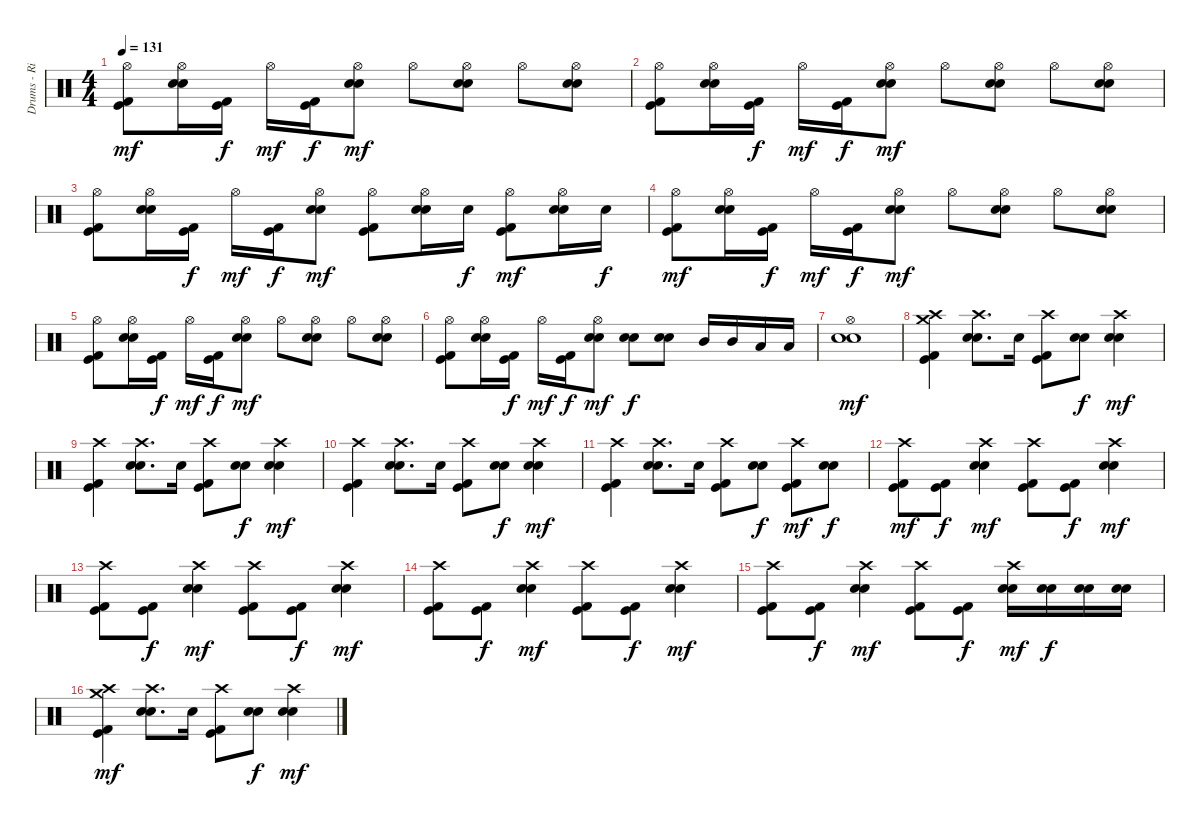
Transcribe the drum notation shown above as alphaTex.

\track ("Drums - Rian" "Drums - Ri") {instrument percussion}
\staff
\articulation defaults
\ts (4 4)
\tempo 131
\clef neutral
\ks c
("Kick (hit) 2" "Kick (hit)" "Hi-Hat (open)").8{dy mf} ("Electric Snare (hit)" "Electric Snare (hit)" "Hi-Hat (open)").16 ("Kick (hit) 2" "Kick (hit)").16{dy f} "Hi-Hat (open)".16{dy mf} ("Kick (hit) 2" "Kick (hit)").16{dy f} ("Electric Snare (hit)" "Electric Snare (hit)" "Hi-Hat (open)").8{dy mf} "Hi-Hat (open)".8 ("Electric Snare (hit)" "Electric Snare (hit)" "Hi-Hat (open)").8 "Hi-Hat (open)".8 ("Electric Snare (hit)" "Electric Snare (hit)" "Hi-Hat (open)").8 |
("Kick (hit) 2" "Kick (hit)" "Hi-Hat (open)").8 ("Electric Snare (hit)" "Electric Snare (hit)" "Hi-Hat (open)").16 ("Kick (hit) 2" "Kick (hit)").16{dy f} "Hi-Hat (open)".16{dy mf} ("Kick (hit) 2" "Kick (hit)").16{dy f} ("Electric Snare (hit)" "Electric Snare (hit)" "Hi-Hat (open)").8{dy mf} "Hi-Hat (open)".8 ("Electric Snare (hit)" "Electric Snare (hit)" "Hi-Hat (open)").8 "Hi-Hat (open)".8 ("Electric Snare (hit)" "Electric Snare (hit)" "Hi-Hat (open)").8 |
("Kick (hit) 2" "Kick (hit)" "Hi-Hat (open)").8 ("Electric Snare (hit)" "Electric Snare (hit)" "Hi-Hat (open)").16 ("Kick (hit) 2" "Kick (hit)").16{dy f} "Hi-Hat (open)".16{dy mf} ("Kick (hit) 2" "Kick (hit)").16{dy f} ("Electric Snare (hit)" "Electric Snare (hit)" "Hi-Hat (open)").8{dy mf} ("Kick (hit) 2" "Kick (hit)" "Hi-Hat (open)").8 ("Electric Snare (hit)" "Electric Snare (hit)" "Hi-Hat (open)").16 "Electric Snare (hit)".16{dy f} ("Kick (hit) 2" "Kick (hit)" "Hi-Hat (open)").8{dy mf} ("Electric Snare (hit)" "Electric Snare (hit)" "Hi-Hat (open)").16 "Electric Snare (hit)".16{dy f} |
("Kick (hit) 2" "Kick (hit)" "Hi-Hat (open)").8{dy mf} ("Electric Snare (hit)" "Electric Snare (hit)" "Hi-Hat (open)").16 ("Kick (hit) 2" "Kick (hit)").16{dy f} "Hi-Hat (open)".16{dy mf} ("Kick (hit) 2" "Kick (hit)").16{dy f} ("Electric Snare (hit)" "Electric Snare (hit)" "Hi-Hat (open)").8{dy mf} "Hi-Hat (open)".8 ("Electric Snare (hit)" "Electric Snare (hit)" "Hi-Hat (open)").8 "Hi-Hat (open)".8 ("Electric Snare (hit)" "Electric Snare (hit)" "Hi-Hat (open)").8 |
("Kick (hit) 2" "Kick (hit)" "Hi-Hat (open)").8 ("Electric Snare (hit)" "Electric Snare (hit)" "Hi-Hat (open)").16 ("Kick (hit) 2" "Kick (hit)").16{dy f} "Hi-Hat (open)".16{dy mf} ("Kick (hit) 2" "Kick (hit)").16{dy f} ("Electric Snare (hit)" "Electric Snare (hit)" "Hi-Hat (open)").8{dy mf} "Hi-Hat (open)".8 ("Electric Snare (hit)" "Electric Snare (hit)" "Hi-Hat (open)").8 "Hi-Hat (open)".8 ("Electric Snare (hit)" "Electric Snare (hit)" "Hi-Hat (open)").8 |
("Kick (hit) 2" "Kick (hit)" "Hi-Hat (open)").8 ("Electric Snare (hit)" "Electric Snare (hit)" "Hi-Hat (open)").16 ("Kick (hit) 2" "Kick (hit)").16{dy f} "Hi-Hat (open)".16{dy mf} ("Kick (hit) 2" "Kick (hit)").16{dy f} ("Electric Snare (hit)" "Electric Snare (hit)" "Hi-Hat (open)").8{dy mf} ("Electric Snare (hit)" "Electric Snare (hit)").8{dy f} ("Electric Snare (hit)" "Electric Snare (hit)").8 "Mid Tom (hit)".16 "Mid Tom (hit)".16 "Low Tom (hit)".16 "Low Tom (hit)".16 |
("Electric Snare (hit)" "Electric Snare (hit)" "Hi-Hat (open)").1{dy mf} |
("Kick (hit) 2" "Kick (hit)" "Crash high (hit)" "Crash medium (hit)").4 ("Electric Snare (hit)" "Electric Snare (hit)" "Crash high (hit)").8{d} "Electric Snare (hit)".16 ("Kick (hit) 2" "Kick (hit)" "Crash high (hit)").8 ("Electric Snare (hit)" "Electric Snare (hit)").8{dy f} ("Electric Snare (hit)" "Electric Snare (hit)" "Crash high (hit)").4{dy mf} |
("Kick (hit) 2" "Kick (hit)" "Crash high (hit)").4 ("Electric Snare (hit)" "Electric Snare (hit)" "Crash high (hit)").8{d} "Electric Snare (hit)".16 ("Kick (hit) 2" "Kick (hit)" "Crash high (hit)").8 ("Electric Snare (hit)" "Electric Snare (hit)").8{dy f} ("Electric Snare (hit)" "Electric Snare (hit)" "Crash high (hit)").4{dy mf} |
("Kick (hit) 2" "Kick (hit)" "Crash high (hit)").4 ("Electric Snare (hit)" "Electric Snare (hit)" "Crash high (hit)").8{d} "Electric Snare (hit)".16 ("Kick (hit) 2" "Kick (hit)" "Crash high (hit)").8 ("Electric Snare (hit)" "Electric Snare (hit)").8{dy f} ("Electric Snare (hit)" "Electric Snare (hit)" "Crash high (hit)").4{dy mf} |
("Kick (hit) 2" "Kick (hit)" "Crash high (hit)").4 ("Electric Snare (hit)" "Electric Snare (hit)" "Crash high (hit)").8{d} "Electric Snare (hit)".16 ("Kick (hit) 2" "Kick (hit)" "Crash high (hit)").8 ("Electric Snare (hit)" "Electric Snare (hit)").8{dy f} ("Kick (hit) 2" "Kick (hit)" "Crash high (hit)").8{dy mf} ("Electric Snare (hit)" "Electric Snare (hit)").8{dy f} |
("Kick (hit) 2" "Kick (hit)" "Crash high (hit)").8{dy mf} ("Kick (hit) 2" "Kick (hit)").8{dy f} ("Electric Snare (hit)" "Electric Snare (hit)" "Crash high (hit)").4{dy mf} ("Kick (hit) 2" "Kick (hit)" "Crash high (hit)").8 ("Kick (hit) 2" "Kick (hit)").8{dy f} ("Electric Snare (hit)" "Electric Snare (hit)" "Crash high (hit)").4{dy mf} |
("Kick (hit) 2" "Kick (hit)" "Crash high (hit)").8 ("Kick (hit) 2" "Kick (hit)").8{dy f} ("Electric Snare (hit)" "Electric Snare (hit)" "Crash high (hit)").4{dy mf} ("Kick (hit) 2" "Kick (hit)" "Crash high (hit)").8 ("Kick (hit) 2" "Kick (hit)").8{dy f} ("Electric Snare (hit)" "Electric Snare (hit)" "Crash high (hit)").4{dy mf} |
("Kick (hit) 2" "Kick (hit)" "Crash high (hit)").8 ("Kick (hit) 2" "Kick (hit)").8{dy f} ("Electric Snare (hit)" "Electric Snare (hit)" "Crash high (hit)").4{dy mf} ("Kick (hit) 2" "Kick (hit)" "Crash high (hit)").8 ("Kick (hit) 2" "Kick (hit)").8{dy f} ("Electric Snare (hit)" "Electric Snare (hit)" "Crash high (hit)").4{dy mf} |
("Kick (hit) 2" "Kick (hit)" "Crash high (hit)").8 ("Kick (hit) 2" "Kick (hit)").8{dy f} ("Electric Snare (hit)" "Electric Snare (hit)" "Crash high (hit)").4{dy mf} ("Kick (hit) 2" "Kick (hit)" "Crash high (hit)").8 ("Kick (hit) 2" "Kick (hit)").8{dy f} ("Electric Snare (hit)" "Electric Snare (hit)" "Crash high (hit)").16{dy mf} ("Electric Snare (hit)" "Electric Snare (hit)").16{dy f} ("Electric Snare (hit)" "Electric Snare (hit)").16 ("Electric Snare (hit)" "Electric Snare (hit)").16 |
("Kick (hit) 2" "Kick (hit)" "Crash high (hit)" "Crash medium (hit)").4{dy mf} ("Electric Snare (hit)" "Electric Snare (hit)" "Crash high (hit)").8{d} "Electric Snare (hit)".16 ("Kick (hit) 2" "Kick (hit)" "Crash high (hit)").8 ("Electric Snare (hit)" "Electric Snare (hit)").8{dy f} ("Electric Snare (hit)" "Electric Snare (hit)" "Crash high (hit)").4{dy mf}
